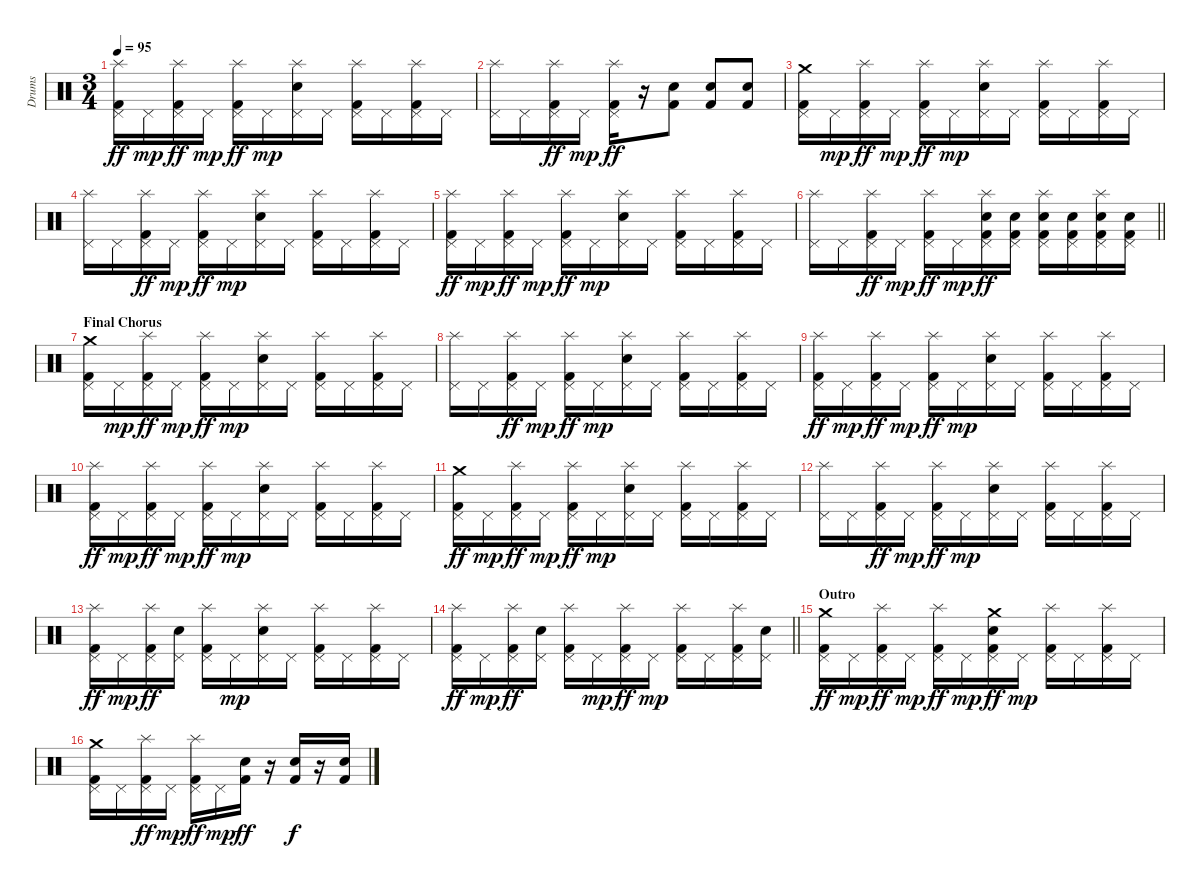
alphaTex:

\track ("Drums" "Drums") {instrument percussion}
\staff {score}
\articulation defaults
\ts (3 4)
\tempo 95
\clef neutral
\ks c
("Splash (hit)" "Pedal Hi-Hat (hit)" "Kick (hit) 2").16{dy ff} "Pedal Hi-Hat (hit)".16{dy mp} ("Splash (hit)" "Pedal Hi-Hat (hit)" "Kick (hit) 2").16{dy ff} "Pedal Hi-Hat (hit)".16{dy mp} ("Splash (hit)" "Pedal Hi-Hat (hit)" "Kick (hit) 2").16{dy ff} "Pedal Hi-Hat (hit)".16{dy mp} ("Splash (hit)" "Pedal Hi-Hat (hit)" "Electric Snare (hit)").16 "Pedal Hi-Hat (hit)".16 ("Splash (hit)" "Pedal Hi-Hat (hit)" "Kick (hit) 2").16 "Pedal Hi-Hat (hit)".16 ("Splash (hit)" "Pedal Hi-Hat (hit)" "Kick (hit) 2").16 "Pedal Hi-Hat (hit)".16 |
("Splash (hit)" "Pedal Hi-Hat (hit)").16 "Pedal Hi-Hat (hit)".16 ("Splash (hit)" "Pedal Hi-Hat (hit)" "Kick (hit) 2").16{dy ff} "Pedal Hi-Hat (hit)".16{dy mp} ("Splash (hit)" "Pedal Hi-Hat (hit)" "Kick (hit) 2").16{dy ff} r.16 ("Electric Snare (hit)" "Kick (hit) 2").8 ("Electric Snare (hit)" "Kick (hit) 2").8 ("Electric Snare (hit)" "Kick (hit) 2").8 |
("Crash medium (hit)" "Pedal Hi-Hat (hit)" "Kick (hit) 2").16 "Pedal Hi-Hat (hit)".16{dy mp} ("Splash (hit)" "Pedal Hi-Hat (hit)" "Kick (hit) 2").16{dy ff} "Pedal Hi-Hat (hit)".16{dy mp} ("Splash (hit)" "Pedal Hi-Hat (hit)" "Kick (hit) 2").16{dy ff} "Pedal Hi-Hat (hit)".16{dy mp} ("Splash (hit)" "Pedal Hi-Hat (hit)" "Electric Snare (hit)").16 "Pedal Hi-Hat (hit)".16 ("Splash (hit)" "Pedal Hi-Hat (hit)" "Kick (hit) 2").16 "Pedal Hi-Hat (hit)".16 ("Splash (hit)" "Pedal Hi-Hat (hit)" "Kick (hit) 2").16 "Pedal Hi-Hat (hit)".16 |
("Splash (hit)" "Pedal Hi-Hat (hit)").16 "Pedal Hi-Hat (hit)".16 ("Splash (hit)" "Pedal Hi-Hat (hit)" "Kick (hit) 2").16{dy ff} "Pedal Hi-Hat (hit)".16{dy mp} ("Splash (hit)" "Pedal Hi-Hat (hit)" "Kick (hit) 2").16{dy ff} "Pedal Hi-Hat (hit)".16{dy mp} ("Splash (hit)" "Pedal Hi-Hat (hit)" "Electric Snare (hit)").16 "Pedal Hi-Hat (hit)".16 ("Splash (hit)" "Pedal Hi-Hat (hit)" "Kick (hit) 2").16 "Pedal Hi-Hat (hit)".16 ("Splash (hit)" "Pedal Hi-Hat (hit)" "Kick (hit) 2").16 "Pedal Hi-Hat (hit)".16 |
("Splash (hit)" "Pedal Hi-Hat (hit)" "Kick (hit) 2").16{dy ff} "Pedal Hi-Hat (hit)".16{dy mp} ("Splash (hit)" "Pedal Hi-Hat (hit)" "Kick (hit) 2").16{dy ff} "Pedal Hi-Hat (hit)".16{dy mp} ("Splash (hit)" "Pedal Hi-Hat (hit)" "Kick (hit) 2").16{dy ff} "Pedal Hi-Hat (hit)".16{dy mp} ("Splash (hit)" "Pedal Hi-Hat (hit)" "Electric Snare (hit)").16 "Pedal Hi-Hat (hit)".16 ("Splash (hit)" "Pedal Hi-Hat (hit)" "Kick (hit) 2").16 "Pedal Hi-Hat (hit)".16 ("Splash (hit)" "Pedal Hi-Hat (hit)" "Kick (hit) 2").16 "Pedal Hi-Hat (hit)".16 |
\barLineRight lightlight
("Splash (hit)" "Pedal Hi-Hat (hit)").16 "Pedal Hi-Hat (hit)".16 ("Splash (hit)" "Pedal Hi-Hat (hit)" "Kick (hit) 2").16{dy ff} "Pedal Hi-Hat (hit)".16{dy mp} ("Splash (hit)" "Pedal Hi-Hat (hit)" "Kick (hit) 2").16{dy ff} "Pedal Hi-Hat (hit)".16{dy mp} ("Splash (hit)" "Pedal Hi-Hat (hit)" "Electric Snare (hit)" "Kick (hit) 2").16{dy ff} ("Pedal Hi-Hat (hit)" "Electric Snare (hit)" "Kick (hit) 2").16 ("Splash (hit)" "Pedal Hi-Hat (hit)" "Electric Snare (hit)" "Kick (hit) 2").16 ("Pedal Hi-Hat (hit)" "Electric Snare (hit)" "Kick (hit) 2").16 ("Splash (hit)" "Pedal Hi-Hat (hit)" "Electric Snare (hit)" "Kick (hit) 2").16 ("Pedal Hi-Hat (hit)" "Electric Snare (hit)" "Kick (hit) 2").16 |
\section ("" "Final Chorus")
("Crash medium (hit)" "Pedal Hi-Hat (hit)" "Kick (hit) 2").16 "Pedal Hi-Hat (hit)".16{dy mp} ("Splash (hit)" "Pedal Hi-Hat (hit)" "Kick (hit) 2").16{dy ff} "Pedal Hi-Hat (hit)".16{dy mp} ("Splash (hit)" "Pedal Hi-Hat (hit)" "Kick (hit) 2").16{dy ff} "Pedal Hi-Hat (hit)".16{dy mp} ("Splash (hit)" "Pedal Hi-Hat (hit)" "Electric Snare (hit)").16 "Pedal Hi-Hat (hit)".16 ("Splash (hit)" "Pedal Hi-Hat (hit)" "Kick (hit) 2").16 "Pedal Hi-Hat (hit)".16 ("Splash (hit)" "Pedal Hi-Hat (hit)" "Kick (hit) 2").16 "Pedal Hi-Hat (hit)".16 |
("Splash (hit)" "Pedal Hi-Hat (hit)").16 "Pedal Hi-Hat (hit)".16 ("Splash (hit)" "Pedal Hi-Hat (hit)" "Kick (hit) 2").16{dy ff} "Pedal Hi-Hat (hit)".16{dy mp} ("Splash (hit)" "Pedal Hi-Hat (hit)" "Kick (hit) 2").16{dy ff} "Pedal Hi-Hat (hit)".16{dy mp} ("Splash (hit)" "Pedal Hi-Hat (hit)" "Electric Snare (hit)").16 "Pedal Hi-Hat (hit)".16 ("Splash (hit)" "Pedal Hi-Hat (hit)" "Kick (hit) 2").16 "Pedal Hi-Hat (hit)".16 ("Splash (hit)" "Pedal Hi-Hat (hit)" "Kick (hit) 2").16 "Pedal Hi-Hat (hit)".16 |
("Splash (hit)" "Pedal Hi-Hat (hit)" "Kick (hit) 2").16{dy ff} "Pedal Hi-Hat (hit)".16{dy mp} ("Splash (hit)" "Pedal Hi-Hat (hit)" "Kick (hit) 2").16{dy ff} "Pedal Hi-Hat (hit)".16{dy mp} ("Splash (hit)" "Pedal Hi-Hat (hit)" "Kick (hit) 2").16{dy ff} "Pedal Hi-Hat (hit)".16{dy mp} ("Splash (hit)" "Pedal Hi-Hat (hit)" "Electric Snare (hit)").16 "Pedal Hi-Hat (hit)".16 ("Splash (hit)" "Pedal Hi-Hat (hit)" "Kick (hit) 2").16 "Pedal Hi-Hat (hit)".16 ("Splash (hit)" "Pedal Hi-Hat (hit)" "Kick (hit) 2").16 "Pedal Hi-Hat (hit)".16 |
("Splash (hit)" "Pedal Hi-Hat (hit)" "Kick (hit) 2").16{dy ff} "Pedal Hi-Hat (hit)".16{dy mp} ("Splash (hit)" "Pedal Hi-Hat (hit)" "Kick (hit) 2").16{dy ff} "Pedal Hi-Hat (hit)".16{dy mp} ("Splash (hit)" "Pedal Hi-Hat (hit)" "Kick (hit) 2").16{dy ff} "Pedal Hi-Hat (hit)".16{dy mp} ("Splash (hit)" "Pedal Hi-Hat (hit)" "Electric Snare (hit)").16 "Pedal Hi-Hat (hit)".16 ("Splash (hit)" "Pedal Hi-Hat (hit)" "Kick (hit) 2").16 "Pedal Hi-Hat (hit)".16 ("Splash (hit)" "Pedal Hi-Hat (hit)" "Kick (hit) 2").16 "Pedal Hi-Hat (hit)".16 |
("Crash medium (hit)" "Pedal Hi-Hat (hit)" "Kick (hit) 2").16{dy ff} "Pedal Hi-Hat (hit)".16{dy mp} ("Splash (hit)" "Pedal Hi-Hat (hit)" "Kick (hit) 2").16{dy ff} "Pedal Hi-Hat (hit)".16{dy mp} ("Splash (hit)" "Pedal Hi-Hat (hit)" "Kick (hit) 2").16{dy ff} "Pedal Hi-Hat (hit)".16{dy mp} ("Splash (hit)" "Pedal Hi-Hat (hit)" "Electric Snare (hit)").16 "Pedal Hi-Hat (hit)".16 ("Splash (hit)" "Pedal Hi-Hat (hit)" "Kick (hit) 2").16 "Pedal Hi-Hat (hit)".16 ("Splash (hit)" "Pedal Hi-Hat (hit)" "Kick (hit) 2").16 "Pedal Hi-Hat (hit)".16 |
("Splash (hit)" "Pedal Hi-Hat (hit)").16 "Pedal Hi-Hat (hit)".16 ("Splash (hit)" "Pedal Hi-Hat (hit)" "Kick (hit) 2").16{dy ff} "Pedal Hi-Hat (hit)".16{dy mp} ("Splash (hit)" "Pedal Hi-Hat (hit)" "Kick (hit) 2").16{dy ff} "Pedal Hi-Hat (hit)".16{dy mp} ("Splash (hit)" "Pedal Hi-Hat (hit)" "Electric Snare (hit)").16 "Pedal Hi-Hat (hit)".16 ("Splash (hit)" "Pedal Hi-Hat (hit)" "Kick (hit) 2").16 "Pedal Hi-Hat (hit)".16 ("Splash (hit)" "Pedal Hi-Hat (hit)" "Kick (hit) 2").16 "Pedal Hi-Hat (hit)".16 |
("Splash (hit)" "Pedal Hi-Hat (hit)" "Kick (hit) 2").16{dy ff} "Pedal Hi-Hat (hit)".16{dy mp} ("Splash (hit)" "Pedal Hi-Hat (hit)" "Kick (hit) 2").16{dy ff} ("Pedal Hi-Hat (hit)" "Electric Snare (hit)").16 ("Splash (hit)" "Pedal Hi-Hat (hit)" "Kick (hit) 2").16 "Pedal Hi-Hat (hit)".16{dy mp} ("Splash (hit)" "Pedal Hi-Hat (hit)" "Electric Snare (hit)").16 "Pedal Hi-Hat (hit)".16 ("Splash (hit)" "Pedal Hi-Hat (hit)" "Kick (hit) 2").16 "Pedal Hi-Hat (hit)".16 ("Splash (hit)" "Pedal Hi-Hat (hit)" "Kick (hit) 2").16 "Pedal Hi-Hat (hit)".16 |
\barLineRight lightlight
("Splash (hit)" "Pedal Hi-Hat (hit)" "Kick (hit) 2").16{dy ff} "Pedal Hi-Hat (hit)".16{dy mp} ("Splash (hit)" "Pedal Hi-Hat (hit)" "Kick (hit) 2").16{dy ff} ("Pedal Hi-Hat (hit)" "Electric Snare (hit)").16 ("Splash (hit)" "Pedal Hi-Hat (hit)" "Kick (hit) 2").16 "Pedal Hi-Hat (hit)".16{dy mp} ("Splash (hit)" "Pedal Hi-Hat (hit)" "Kick (hit) 2").16{dy ff} "Pedal Hi-Hat (hit)".16{dy mp} ("Splash (hit)" "Pedal Hi-Hat (hit)" "Kick (hit) 2").16 "Pedal Hi-Hat (hit)".16 ("Splash (hit)" "Pedal Hi-Hat (hit)" "Kick (hit) 2").16 ("Pedal Hi-Hat (hit)" "Electric Snare (hit)").16 |
\section ("" "Outro")
("Crash medium (hit)" "Pedal Hi-Hat (hit)" "Kick (hit) 2").16{dy ff} "Pedal Hi-Hat (hit)".16{dy mp} ("Splash (hit)" "Pedal Hi-Hat (hit)" "Kick (hit) 2").16{dy ff} "Pedal Hi-Hat (hit)".16{dy mp} ("Splash (hit)" "Pedal Hi-Hat (hit)" "Kick (hit) 2").16{dy ff} "Pedal Hi-Hat (hit)".16{dy mp} ("Crash medium (hit)" "Pedal Hi-Hat (hit)" "Electric Snare (hit)" "Kick (hit) 2").16{dy ff} "Pedal Hi-Hat (hit)".16{dy mp} ("Splash (hit)" "Pedal Hi-Hat (hit)" "Kick (hit) 2").16 "Pedal Hi-Hat (hit)".16 ("Splash (hit)" "Pedal Hi-Hat (hit)" "Kick (hit) 2").16 "Pedal Hi-Hat (hit)".16 |
("Crash medium (hit)" "Pedal Hi-Hat (hit)" "Kick (hit) 2").16 "Pedal Hi-Hat (hit)".16 ("Splash (hit)" "Pedal Hi-Hat (hit)" "Kick (hit) 2").16{dy ff} "Pedal Hi-Hat (hit)".16{dy mp} ("Splash (hit)" "Pedal Hi-Hat (hit)" "Kick (hit) 2").16{dy ff} "Pedal Hi-Hat (hit)".16{dy mp} ("Electric Snare (hit)" "Kick (hit) 2").16{dy ff} r.16 ("Electric Snare (hit)" "Kick (hit) 2").16{dy f} r.16 ("Electric Snare (hit)" "Kick (hit) 2").16
